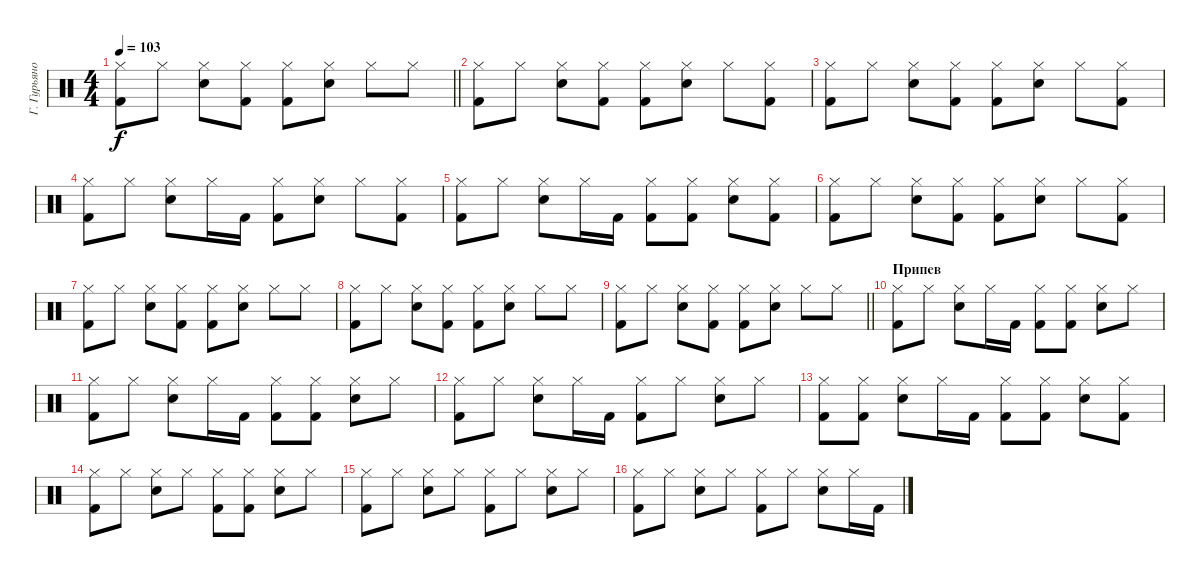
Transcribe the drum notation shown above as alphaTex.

\track ("Г. Гурьянов" "Г. Гурьяно") {instrument percussion}
\staff
\articulation defaults
\ts (4 4)
\tempo 103
\clef neutral
\barLineRight lightlight
\ks c
("Hi-Hat (closed)" "Kick (hit) 2").8{dy f} "Hi-Hat (closed)".8 ("Hi-Hat (closed)" "Snare (hit) 2").8 ("Hi-Hat (closed)" "Kick (hit) 2").8 ("Hi-Hat (closed)" "Kick (hit) 2").8 ("Hi-Hat (closed)" "Snare (hit) 2").8 "Hi-Hat (closed)".8 "Hi-Hat (closed)".8 |
("Hi-Hat (closed)" "Kick (hit) 2").8 "Hi-Hat (closed)".8 ("Hi-Hat (closed)" "Snare (hit) 2").8 ("Hi-Hat (closed)" "Kick (hit) 2").8 ("Hi-Hat (closed)" "Kick (hit) 2").8 ("Hi-Hat (closed)" "Snare (hit) 2").8 "Hi-Hat (closed)".8 ("Hi-Hat (closed)" "Kick (hit) 2").8 |
("Hi-Hat (closed)" "Kick (hit) 2").8 "Hi-Hat (closed)".8 ("Hi-Hat (closed)" "Snare (hit) 2").8 ("Hi-Hat (closed)" "Kick (hit) 2").8 ("Hi-Hat (closed)" "Kick (hit) 2").8 ("Hi-Hat (closed)" "Snare (hit) 2").8 "Hi-Hat (closed)".8 ("Hi-Hat (closed)" "Kick (hit) 2").8 |
("Hi-Hat (closed)" "Kick (hit) 2").8 "Hi-Hat (closed)".8 ("Hi-Hat (closed)" "Snare (hit) 2").8 "Hi-Hat (closed)".16 "Kick (hit) 2".16 ("Hi-Hat (closed)" "Kick (hit) 2").8 ("Hi-Hat (closed)" "Snare (hit) 2").8 "Hi-Hat (closed)".8 ("Hi-Hat (closed)" "Kick (hit) 2").8 |
("Hi-Hat (closed)" "Kick (hit) 2").8 "Hi-Hat (closed)".8 ("Hi-Hat (closed)" "Snare (hit) 2").8 "Hi-Hat (closed)".16 "Kick (hit) 2".16 ("Hi-Hat (closed)" "Kick (hit) 2").8 ("Hi-Hat (closed)" "Kick (hit) 2").8 ("Hi-Hat (closed)" "Snare (hit) 2").8 ("Hi-Hat (closed)" "Kick (hit) 2").8 |
("Hi-Hat (closed)" "Kick (hit) 2").8 "Hi-Hat (closed)".8 ("Hi-Hat (closed)" "Snare (hit) 2").8 ("Hi-Hat (closed)" "Kick (hit) 2").8 ("Hi-Hat (closed)" "Kick (hit) 2").8 ("Hi-Hat (closed)" "Snare (hit) 2").8 "Hi-Hat (closed)".8 ("Hi-Hat (closed)" "Kick (hit) 2").8 |
("Hi-Hat (closed)" "Kick (hit) 2").8 "Hi-Hat (closed)".8 ("Hi-Hat (closed)" "Snare (hit) 2").8 ("Hi-Hat (closed)" "Kick (hit) 2").8 ("Hi-Hat (closed)" "Kick (hit) 2").8 ("Hi-Hat (closed)" "Snare (hit) 2").8 "Hi-Hat (closed)".8 "Hi-Hat (closed)".8 |
("Hi-Hat (closed)" "Kick (hit) 2").8 "Hi-Hat (closed)".8 ("Hi-Hat (closed)" "Snare (hit) 2").8 ("Hi-Hat (closed)" "Kick (hit) 2").8 ("Hi-Hat (closed)" "Kick (hit) 2").8 ("Hi-Hat (closed)" "Snare (hit) 2").8 "Hi-Hat (closed)".8 "Hi-Hat (closed)".8 |
\barLineRight lightlight
("Hi-Hat (closed)" "Kick (hit) 2").8 "Hi-Hat (closed)".8 ("Hi-Hat (closed)" "Snare (hit) 2").8 ("Hi-Hat (closed)" "Kick (hit) 2").8 ("Hi-Hat (closed)" "Kick (hit) 2").8 ("Hi-Hat (closed)" "Snare (hit) 2").8 "Hi-Hat (closed)".8 "Hi-Hat (closed)".8 |
\section ("" "Припев")
("Hi-Hat (closed)" "Kick (hit) 2").8 "Hi-Hat (closed)".8 ("Hi-Hat (closed)" "Snare (hit) 2").8 "Hi-Hat (closed)".16 "Kick (hit) 2".16 ("Hi-Hat (closed)" "Kick (hit) 2").8 ("Hi-Hat (closed)" "Kick (hit) 2").8 ("Hi-Hat (closed)" "Snare (hit) 2").8 "Hi-Hat (closed)".8 |
("Hi-Hat (closed)" "Kick (hit) 2").8 "Hi-Hat (closed)".8 ("Hi-Hat (closed)" "Snare (hit) 2").8 "Hi-Hat (closed)".16 "Kick (hit) 2".16 ("Hi-Hat (closed)" "Kick (hit) 2").8 ("Hi-Hat (closed)" "Kick (hit) 2").8 ("Hi-Hat (closed)" "Snare (hit) 2").8 "Hi-Hat (closed)".8 |
("Hi-Hat (closed)" "Kick (hit) 2").8 "Hi-Hat (closed)".8 ("Hi-Hat (closed)" "Snare (hit) 2").8 "Hi-Hat (closed)".16 "Kick (hit) 2".16 ("Hi-Hat (closed)" "Kick (hit) 2").8 "Hi-Hat (closed)".8 ("Hi-Hat (closed)" "Snare (hit) 2").8 "Hi-Hat (closed)".8 |
("Hi-Hat (closed)" "Kick (hit) 2").8 ("Hi-Hat (closed)" "Kick (hit) 2").8 ("Hi-Hat (closed)" "Snare (hit) 2").8 "Hi-Hat (closed)".16 "Kick (hit) 2".16 ("Hi-Hat (closed)" "Kick (hit) 2").8 ("Hi-Hat (closed)" "Kick (hit) 2").8 ("Hi-Hat (closed)" "Snare (hit) 2").8 ("Hi-Hat (closed)" "Kick (hit) 2").8 |
("Hi-Hat (closed)" "Kick (hit) 2").8 "Hi-Hat (closed)".8 ("Hi-Hat (closed)" "Snare (hit) 2").8 "Hi-Hat (closed)".8 ("Hi-Hat (closed)" "Kick (hit) 2").8 ("Hi-Hat (closed)" "Kick (hit) 2").8 ("Hi-Hat (closed)" "Snare (hit) 2").8 "Hi-Hat (closed)".8 |
("Hi-Hat (closed)" "Kick (hit) 2").8 "Hi-Hat (closed)".8 ("Hi-Hat (closed)" "Snare (hit) 2").8 "Hi-Hat (closed)".8 ("Hi-Hat (closed)" "Kick (hit) 2").8 "Hi-Hat (closed)".8 ("Hi-Hat (closed)" "Snare (hit) 2").8 "Hi-Hat (closed)".8 |
("Hi-Hat (closed)" "Kick (hit) 2").8 "Hi-Hat (closed)".8 ("Hi-Hat (closed)" "Snare (hit) 2").8 "Hi-Hat (closed)".8 ("Hi-Hat (closed)" "Kick (hit) 2").8 "Hi-Hat (closed)".8 ("Hi-Hat (closed)" "Snare (hit) 2").8 "Hi-Hat (closed)".16 "Kick (hit) 2".16
